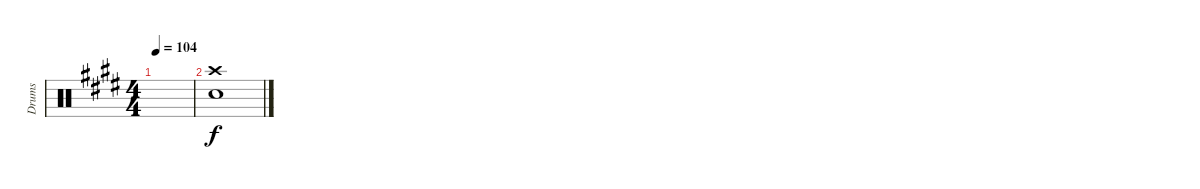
\track ("Drums" "Drums") {instrument percussion}
\staff {score}
\articulation defaults
\ts (4 4)
\tempo 104
\clef neutral
\ks e
|
("Crash high (hit)" "Electric Snare (hit)").1{dy f}
